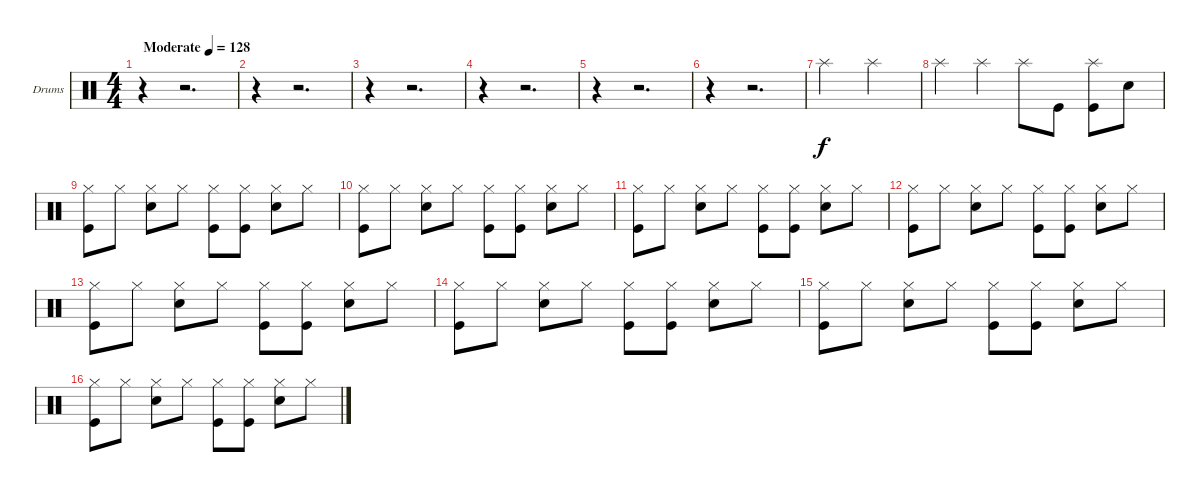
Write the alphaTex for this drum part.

\bracketExtendMode groupsimilarinstruments
\firstSystemTrackNameOrientation horizontal
\otherSystemsTrackNameOrientation horizontal
\track ("Drumkit" "Drums") {instrument percussion}
\staff {score}
\articulation defaults
\ts (4 4)
\beaming (8 2 2 2 2)
\tempo (128 "Moderate")
\clef neutral
\ks c
r.4{dy f} r.2{d} |
r.4 r.2{d} |
r.4 r.2{d} |
r.4 r.2{d} |
r.4 r.2{d} |
r.4 r.2{d} |
"Splash (hit)".2 "Splash (hit)".2 |
"Splash (hit)".4 "Splash (hit)".4 "Splash (hit)".8 "Kick (hit)".8 ("Splash (hit)" "Kick (hit)").8 "Snare (hit) 2".8 |
("Hi-Hat (closed)" "Kick (hit)").8 "Hi-Hat (closed)".8 ("Hi-Hat (closed)" "Snare (hit) 2").8 "Hi-Hat (closed)".8 ("Hi-Hat (closed)" "Kick (hit)").8 ("Hi-Hat (closed)" "Kick (hit)").8 ("Hi-Hat (closed)" "Snare (hit) 2").8 "Hi-Hat (closed)".8 |
("Hi-Hat (closed)" "Kick (hit)").8 "Hi-Hat (closed)".8 ("Hi-Hat (closed)" "Snare (hit) 2").8 "Hi-Hat (closed)".8 ("Hi-Hat (closed)" "Kick (hit)").8 ("Hi-Hat (closed)" "Kick (hit)").8 ("Hi-Hat (closed)" "Snare (hit) 2").8 "Hi-Hat (closed)".8 |
("Hi-Hat (closed)" "Kick (hit)").8 "Hi-Hat (closed)".8 ("Hi-Hat (closed)" "Snare (hit) 2").8 "Hi-Hat (closed)".8 ("Hi-Hat (closed)" "Kick (hit)").8 ("Hi-Hat (closed)" "Kick (hit)").8 ("Hi-Hat (closed)" "Snare (hit) 2").8 "Hi-Hat (closed)".8 |
("Hi-Hat (closed)" "Kick (hit)").8 "Hi-Hat (closed)".8 ("Hi-Hat (closed)" "Snare (hit) 2").8 "Hi-Hat (closed)".8 ("Hi-Hat (closed)" "Kick (hit)").8 ("Hi-Hat (closed)" "Kick (hit)").8 ("Hi-Hat (closed)" "Snare (hit) 2").8 "Hi-Hat (closed)".8 |
("Hi-Hat (closed)" "Kick (hit)").8 "Hi-Hat (closed)".8 ("Hi-Hat (closed)" "Snare (hit) 2").8 "Hi-Hat (closed)".8 ("Hi-Hat (closed)" "Kick (hit)").8 ("Hi-Hat (closed)" "Kick (hit)").8 ("Hi-Hat (closed)" "Snare (hit) 2").8 "Hi-Hat (closed)".8 |
("Hi-Hat (closed)" "Kick (hit)").8 "Hi-Hat (closed)".8 ("Hi-Hat (closed)" "Snare (hit) 2").8 "Hi-Hat (closed)".8 ("Hi-Hat (closed)" "Kick (hit)").8 ("Hi-Hat (closed)" "Kick (hit)").8 ("Hi-Hat (closed)" "Snare (hit) 2").8 "Hi-Hat (closed)".8 |
("Hi-Hat (closed)" "Kick (hit)").8 "Hi-Hat (closed)".8 ("Hi-Hat (closed)" "Snare (hit) 2").8 "Hi-Hat (closed)".8 ("Hi-Hat (closed)" "Kick (hit)").8 ("Hi-Hat (closed)" "Kick (hit)").8 ("Hi-Hat (closed)" "Snare (hit) 2").8 "Hi-Hat (closed)".8 |
("Hi-Hat (closed)" "Kick (hit)").8 "Hi-Hat (closed)".8 ("Hi-Hat (closed)" "Snare (hit) 2").8 "Hi-Hat (closed)".8 ("Hi-Hat (closed)" "Kick (hit)").8 ("Hi-Hat (closed)" "Kick (hit)").8 ("Hi-Hat (closed)" "Snare (hit) 2").8 "Hi-Hat (closed)".8
